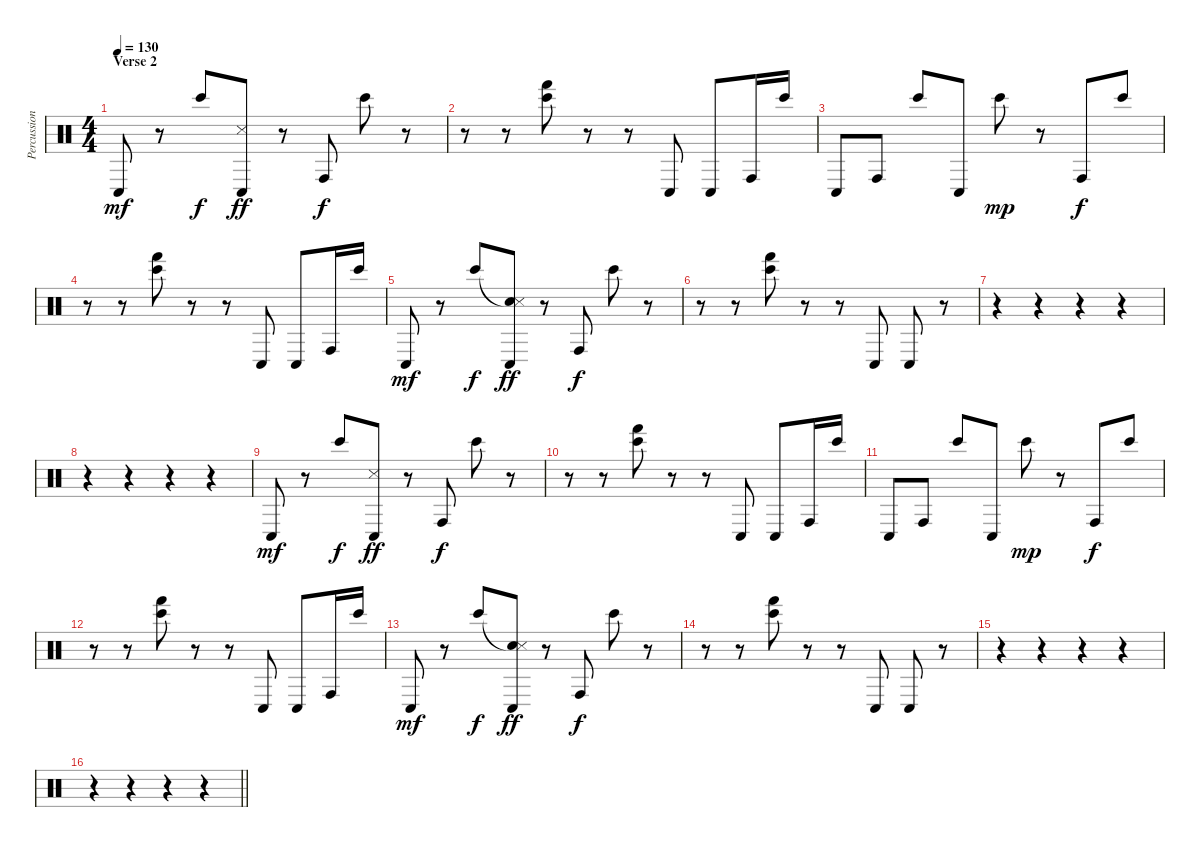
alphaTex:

\track ("Percussions (Roger Vasquez)" "Percussion") {instrument percussion}
\staff {score}
\articulation defaults
\ts (4 4)
\section ("" "Verse 2")
\tempo 130
\clef neutral
\ks c "Conga low (hit)".8{dy mf}
r.8 "Bongo High (hit)".8{dy f} ("Snare (side stick) 3" "Conga low (hit)").8{dy ff} r.8 "Conga high (hit)".8{dy f} "Bongo High (hit)".8 r.8 |
r.8 r.8 ("Bongo High (hit)" "Hand (hit)").8 r.8 r.8 "Conga low (hit)".8 "Conga low (hit)".8 "Conga high (hit)".16 "Bongo High (hit)".16 |
"Conga low (hit)".8 "Conga high (hit)".8 "Bongo High (hit)".8 "Conga low (hit)".8 "Bongo High (hit)".8{dy mp} r.8 "Conga high (hit)".8{dy f} "Bongo High (hit)".8 |
r.8 r.8 ("Bongo High (hit)" "Hand (hit)").8 r.8 r.8 "Conga low (hit)".8 "Conga low (hit)".8 "Conga high (hit)".16 "Bongo High (hit)".16 |
"Conga low (hit)".8{dy mf} r.8 "Bongo High (hit)".8{dy f} ("Snare (hit)"{t} "Snare (side stick) 3" "Conga low (hit)").8{dy ff} r.8 "Conga high (hit)".8{dy f} "Bongo High (hit)".8 r.8 |
r.8 r.8 ("Bongo High (hit)" "Hand (hit)").8 r.8 r.8 "Conga low (hit)".8 "Conga low (hit)".8 r.8 |
r.4 r.4 r.4 r.4 |
r.4 r.4 r.4 r.4 |
"Conga low (hit)".8{dy mf} r.8 "Bongo High (hit)".8{dy f} ("Snare (side stick) 3" "Conga low (hit)").8{dy ff} r.8 "Conga high (hit)".8{dy f} "Bongo High (hit)".8 r.8 |
r.8 r.8 ("Bongo High (hit)" "Hand (hit)").8 r.8 r.8 "Conga low (hit)".8 "Conga low (hit)".8 "Conga high (hit)".16 "Bongo High (hit)".16 |
"Conga low (hit)".8 "Conga high (hit)".8 "Bongo High (hit)".8 "Conga low (hit)".8 "Bongo High (hit)".8{dy mp} r.8 "Conga high (hit)".8{dy f} "Bongo High (hit)".8 |
r.8 r.8 ("Bongo High (hit)" "Hand (hit)").8 r.8 r.8 "Conga low (hit)".8 "Conga low (hit)".8 "Conga high (hit)".16 "Bongo High (hit)".16 |
"Conga low (hit)".8{dy mf} r.8 "Bongo High (hit)".8{dy f} ("Snare (hit)"{t} "Snare (side stick) 3" "Conga low (hit)").8{dy ff} r.8 "Conga high (hit)".8{dy f} "Bongo High (hit)".8 r.8 |
r.8 r.8 ("Bongo High (hit)" "Hand (hit)").8 r.8 r.8 "Conga low (hit)".8 "Conga low (hit)".8 r.8 |
r.4 r.4 r.4 r.4 |
\barLineRight lightlight
r.4 r.4 r.4 r.4
